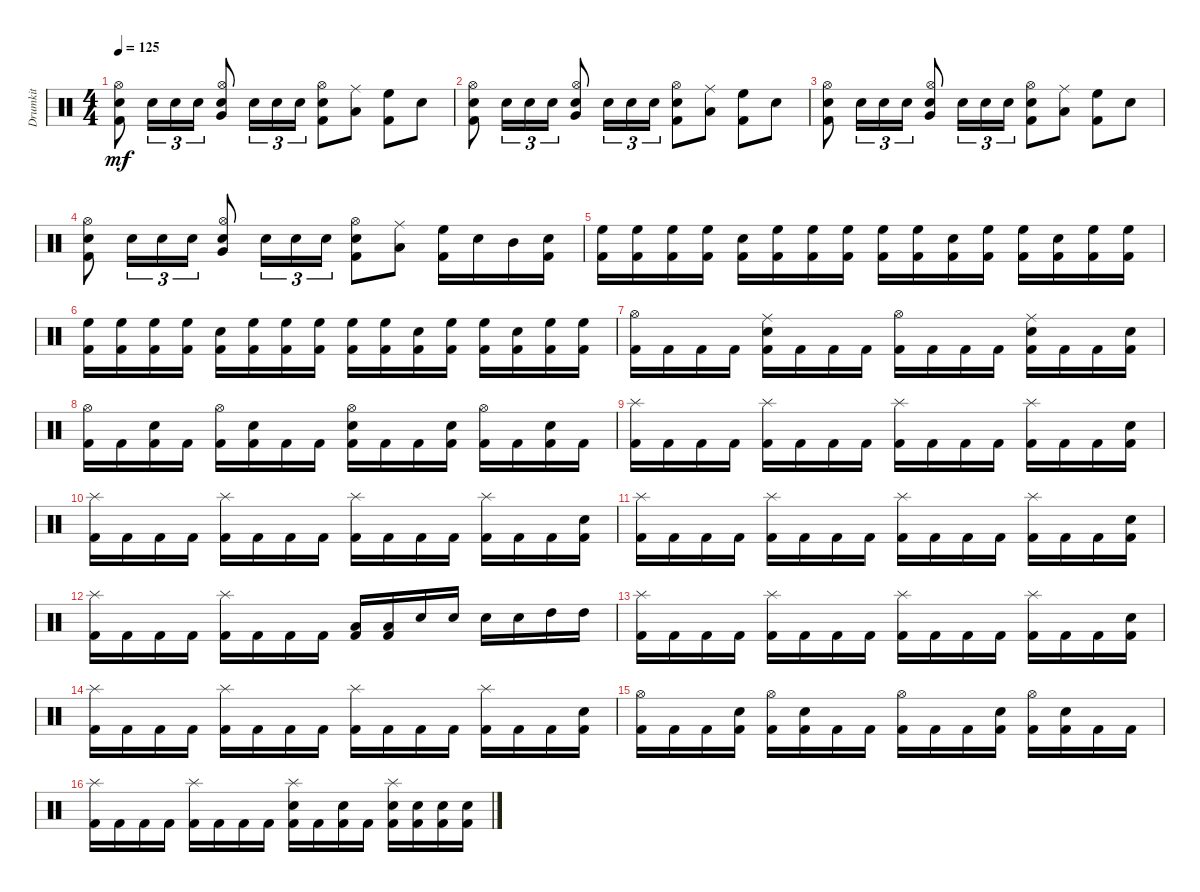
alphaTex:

\track ("Drumkit" "Drumkit") {instrument percussion}
\staff {score}
\articulation defaults
\ts (4 4)
\tempo 125
\clef neutral
\ks c
("Snare (hit) 2" "Kick (hit) 2" "Hi-Hat (open)").8{dy mf} "Snare (hit) 2".16{tu (3 2)} "Snare (hit) 2".16{tu (3 2)} "Snare (hit) 2".16{tu (3 2)} ("Snare (hit) 2" "Very Low Tom (hit)" "Hi-Hat (open)").8 "Snare (hit) 2".16{tu (3 2)} "Snare (hit) 2".16{tu (3 2)} "Snare (hit) 2".16{tu (3 2)} ("Snare (hit) 2" "Kick (hit) 2" "Hi-Hat (open)").8 ("Low Tom (hit)" "Ride (middle)").8 ("Kick (hit) 2" "High Floor Tom (hit)").8 "Snare (hit) 2".8 |
("Snare (hit) 2" "Kick (hit) 2" "Hi-Hat (open)").8 "Snare (hit) 2".16{tu (3 2)} "Snare (hit) 2".16{tu (3 2)} "Snare (hit) 2".16{tu (3 2)} ("Snare (hit) 2" "Very Low Tom (hit)" "Hi-Hat (open)").8 "Snare (hit) 2".16{tu (3 2)} "Snare (hit) 2".16{tu (3 2)} "Snare (hit) 2".16{tu (3 2)} ("Snare (hit) 2" "Kick (hit) 2" "Hi-Hat (open)").8 ("Ride (middle)" "Low Tom (hit)").8 ("Kick (hit) 2" "High Floor Tom (hit)").8 "Snare (hit) 2".8 |
("Snare (hit) 2" "Kick (hit) 2" "Hi-Hat (open)").8 "Snare (hit) 2".16{tu (3 2)} "Snare (hit) 2".16{tu (3 2)} "Snare (hit) 2".16{tu (3 2)} ("Snare (hit) 2" "Very Low Tom (hit)" "Hi-Hat (open)").8 "Snare (hit) 2".16{tu (3 2)} "Snare (hit) 2".16{tu (3 2)} "Snare (hit) 2".16{tu (3 2)} ("Snare (hit) 2" "Kick (hit) 2" "Hi-Hat (open)").8 ("Low Tom (hit)" "Ride (middle)").8 ("Kick (hit) 2" "High Floor Tom (hit)").8 "Snare (hit) 2".8 |
("Snare (hit) 2" "Kick (hit) 2" "Hi-Hat (open)").8 "Snare (hit) 2".16{tu (3 2)} "Snare (hit) 2".16{tu (3 2)} "Snare (hit) 2".16{tu (3 2)} ("Snare (hit) 2" "Very Low Tom (hit)" "Hi-Hat (open)").8 "Snare (hit) 2".16{tu (3 2)} "Snare (hit) 2".16{tu (3 2)} "Snare (hit) 2".16{tu (3 2)} ("Snare (hit) 2" "Kick (hit) 2" "Hi-Hat (open)").8 ("Low Tom (hit)" "Ride (middle)").8 ("Kick (hit) 2" "High Floor Tom (hit)").16 "Snare (hit) 2".16 "Mid Tom (hit)".16 ("Snare (hit) 2" "Kick (hit) 2").16 |
("Kick (hit) 2" "High Floor Tom (hit)").16 ("Kick (hit) 2" "High Floor Tom (hit)").16 ("Kick (hit) 2" "High Floor Tom (hit)").16 ("Kick (hit) 2" "High Floor Tom (hit)").16 ("Kick (hit) 2" "Snare (hit) 2").16 ("Kick (hit) 2" "High Floor Tom (hit)").16 ("Kick (hit) 2" "High Floor Tom (hit)").16 ("Kick (hit) 2" "High Floor Tom (hit)").16 ("Kick (hit) 2" "High Floor Tom (hit)").16 ("Kick (hit) 2" "High Floor Tom (hit)").16 ("Kick (hit) 2" "Snare (hit) 2").16 ("Kick (hit) 2" "High Floor Tom (hit)").16 ("Kick (hit) 2" "High Floor Tom (hit)").16 ("Kick (hit) 2" "Snare (hit) 2").16 ("Kick (hit) 2" "High Floor Tom (hit)").16 ("Kick (hit) 2" "High Floor Tom (hit)").16 |
("Kick (hit) 2" "High Floor Tom (hit)").16 ("Kick (hit) 2" "High Floor Tom (hit)").16 ("Kick (hit) 2" "High Floor Tom (hit)").16 ("Kick (hit) 2" "High Floor Tom (hit)").16 ("Kick (hit) 2" "Snare (hit) 2").16 ("Kick (hit) 2" "High Floor Tom (hit)").16 ("Kick (hit) 2" "High Floor Tom (hit)").16 ("Kick (hit) 2" "High Floor Tom (hit)").16 ("Kick (hit) 2" "High Floor Tom (hit)").16 ("Kick (hit) 2" "High Floor Tom (hit)").16 ("Kick (hit) 2" "Snare (hit) 2").16 ("Kick (hit) 2" "High Floor Tom (hit)").16 ("Kick (hit) 2" "High Floor Tom (hit)").16 ("Kick (hit) 2" "Snare (hit) 2").16 ("Kick (hit) 2" "High Floor Tom (hit)").16 ("Kick (hit) 2" "High Floor Tom (hit)").16 |
("Kick (hit) 2" "Hi-Hat (open)").16 "Kick (hit) 2".16 "Kick (hit) 2".16 "Kick (hit) 2".16 ("Kick (hit) 2" "Ride (middle)" "Snare (hit) 2").16 "Kick (hit) 2".16 "Kick (hit) 2".16 "Kick (hit) 2".16 ("Kick (hit) 2" "Hi-Hat (open)").16 "Kick (hit) 2".16 "Kick (hit) 2".16 "Kick (hit) 2".16 ("Kick (hit) 2" "Ride (middle)" "Snare (hit) 2").16 "Kick (hit) 2".16 "Kick (hit) 2".16 ("Kick (hit) 2" "Snare (hit) 2").16 |
("Kick (hit) 2" "Hi-Hat (open)").16 "Kick (hit) 2".16 ("Kick (hit) 2" "Snare (hit) 2").16 "Kick (hit) 2".16 ("Kick (hit) 2" "Hi-Hat (open)").16 ("Kick (hit) 2" "Snare (hit) 2").16 "Kick (hit) 2".16 "Kick (hit) 2".16 ("Kick (hit) 2" "Hi-Hat (open)" "Snare (hit) 2").16 "Kick (hit) 2".16 "Kick (hit) 2".16 ("Kick (hit) 2" "Snare (hit) 2").16 ("Kick (hit) 2" "Hi-Hat (open)").16 "Kick (hit) 2".16 ("Kick (hit) 2" "Snare (hit) 2").16 "Kick (hit) 2".16 |
("Kick (hit) 2" "Splash (hit)").16 "Kick (hit) 2".16 "Kick (hit) 2".16 "Kick (hit) 2".16 ("Kick (hit) 2" "Splash (hit)").16 "Kick (hit) 2".16 "Kick (hit) 2".16 "Kick (hit) 2".16 ("Kick (hit) 2" "Splash (hit)").16 "Kick (hit) 2".16 "Kick (hit) 2".16 "Kick (hit) 2".16 ("Kick (hit) 2" "Splash (hit)").16 "Kick (hit) 2".16 "Kick (hit) 2".16 ("Kick (hit) 2" "Snare (hit) 2").16 |
("Kick (hit) 2" "Splash (hit)").16 "Kick (hit) 2".16 "Kick (hit) 2".16 "Kick (hit) 2".16 ("Kick (hit) 2" "Splash (hit)").16 "Kick (hit) 2".16 "Kick (hit) 2".16 "Kick (hit) 2".16 ("Kick (hit) 2" "Splash (hit)").16 "Kick (hit) 2".16 "Kick (hit) 2".16 "Kick (hit) 2".16 ("Kick (hit) 2" "Splash (hit)").16 "Kick (hit) 2".16 "Kick (hit) 2".16 ("Kick (hit) 2" "Snare (hit) 2").16 |
("Kick (hit) 2" "Splash (hit)").16 "Kick (hit) 2".16 "Kick (hit) 2".16 "Kick (hit) 2".16 ("Kick (hit) 2" "Splash (hit)").16 "Kick (hit) 2".16 "Kick (hit) 2".16 "Kick (hit) 2".16 ("Kick (hit) 2" "Splash (hit)").16 "Kick (hit) 2".16 "Kick (hit) 2".16 "Kick (hit) 2".16 ("Kick (hit) 2" "Splash (hit)").16 "Kick (hit) 2".16 "Kick (hit) 2".16 ("Kick (hit) 2" "Snare (hit) 2").16 |
("Kick (hit) 2" "Splash (hit)").16 "Kick (hit) 2".16 "Kick (hit) 2".16 "Kick (hit) 2".16 ("Kick (hit) 2" "Splash (hit)").16 "Kick (hit) 2".16 "Kick (hit) 2".16 "Kick (hit) 2".16 ("Kick (hit) 2" "Low Tom (hit)").16 ("Low Tom (hit)" "Kick (hit) 2").16 "Snare (hit) 2".16 "Snare (hit) 2".16 "Snare (hit) 2".16 "Snare (hit) 2".16 "High Tom (hit)".16 "High Tom (hit)".16 |
("Kick (hit) 2" "Splash (hit)").16 "Kick (hit) 2".16 "Kick (hit) 2".16 "Kick (hit) 2".16 ("Kick (hit) 2" "Splash (hit)").16 "Kick (hit) 2".16 "Kick (hit) 2".16 "Kick (hit) 2".16 ("Kick (hit) 2" "Splash (hit)").16 "Kick (hit) 2".16 "Kick (hit) 2".16 "Kick (hit) 2".16 ("Kick (hit) 2" "Splash (hit)").16 "Kick (hit) 2".16 "Kick (hit) 2".16 ("Kick (hit) 2" "Snare (hit) 2").16 |
("Kick (hit) 2" "Splash (hit)").16 "Kick (hit) 2".16 "Kick (hit) 2".16 "Kick (hit) 2".16 ("Kick (hit) 2" "Splash (hit)").16 "Kick (hit) 2".16 "Kick (hit) 2".16 "Kick (hit) 2".16 ("Kick (hit) 2" "Splash (hit)").16 "Kick (hit) 2".16 "Kick (hit) 2".16 "Kick (hit) 2".16 ("Kick (hit) 2" "Splash (hit)").16 "Kick (hit) 2".16 "Kick (hit) 2".16 ("Kick (hit) 2" "Snare (hit) 2").16 |
("Kick (hit) 2" "Hi-Hat (open)").16 "Kick (hit) 2".16 "Kick (hit) 2".16 ("Kick (hit) 2" "Snare (hit) 2").16 ("Kick (hit) 2" "Hi-Hat (open)").16 ("Kick (hit) 2" "Snare (hit) 2").16 "Kick (hit) 2".16 "Kick (hit) 2".16 ("Kick (hit) 2" "Hi-Hat (open)").16 "Kick (hit) 2".16 "Kick (hit) 2".16 ("Kick (hit) 2" "Snare (hit) 2").16 ("Kick (hit) 2" "Hi-Hat (open)").16 ("Kick (hit) 2" "Snare (hit) 2").16 "Kick (hit) 2".16 "Kick (hit) 2".16 |
("Kick (hit) 2" "Splash (hit)").16 "Kick (hit) 2".16 "Kick (hit) 2".16 "Kick (hit) 2".16 ("Kick (hit) 2" "Splash (hit)").16 "Kick (hit) 2".16 "Kick (hit) 2".16 "Kick (hit) 2".16 ("Kick (hit) 2" "Splash (hit)" "Snare (hit) 2").16 "Kick (hit) 2".16 ("Kick (hit) 2" "Snare (hit) 2").16 "Kick (hit) 2".16 ("Kick (hit) 2" "Splash (hit)" "Snare (hit) 2").16 ("Kick (hit) 2" "Snare (hit) 2").16 ("Kick (hit) 2" "Snare (hit) 2").16 ("Kick (hit) 2" "Snare (hit) 2").16
